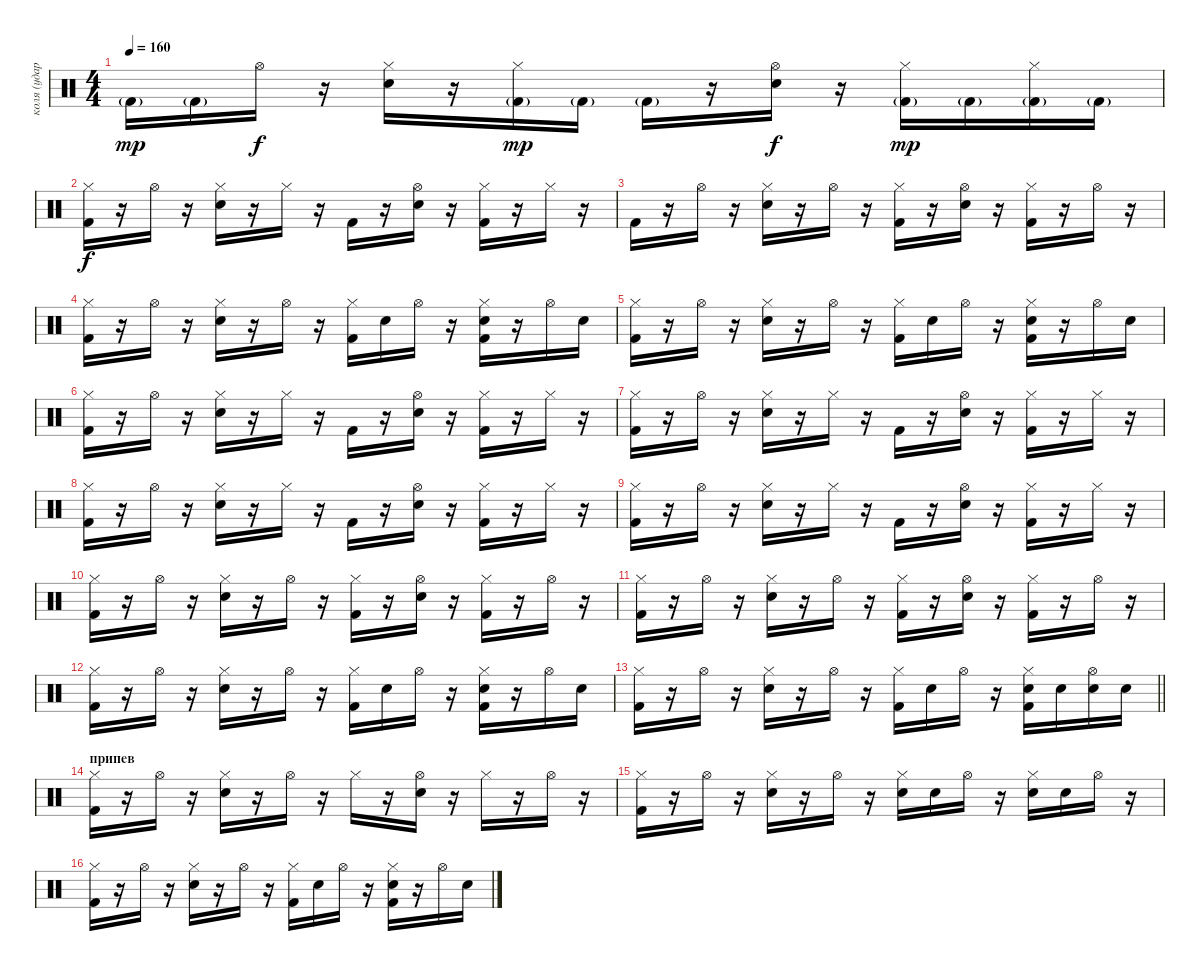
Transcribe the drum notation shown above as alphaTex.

\track ("коля (ударные)" "коля (удар") {instrument percussion}
\staff {score}
\articulation defaults
\ts (4 4)
\tempo 160
\clef neutral
\ks c "Kick (hit) 2"{g}.16{dy mp} "Kick (hit) 2"{g}.16 "Hi-Hat (open)".16{dy f}
r.16 ("Snare (hit) 2" "Hi-Hat (closed)").16 r.16 ("Kick (hit) 2"{g} "Hi-Hat (closed)").16{dy mp} "Kick (hit) 2"{g}.16 "Kick (hit) 2"{g}.16 r.16 ("Snare (hit) 2" "Hi-Hat (open)").16{dy f} r.16 ("Kick (hit) 2"{g} "Hi-Hat (closed)").16{dy mp} "Kick (hit) 2"{g}.16 ("Kick (hit) 2"{g} "Hi-Hat (closed)").16 "Kick (hit) 2"{g}.16 |
("Kick (hit) 2" "Hi-Hat (closed)").16{dy f} r.16 "Hi-Hat (open)".16 r.16 ("Snare (hit) 2" "Hi-Hat (closed)").16 r.16 "Hi-Hat (closed)".16 r.16 "Kick (hit) 2".16 r.16 ("Snare (hit) 2" "Hi-Hat (open)").16 r.16 ("Kick (hit) 2" "Hi-Hat (closed)").16 r.16 "Hi-Hat (closed)".16 r.16 |
"Kick (hit) 2".16 r.16 "Hi-Hat (open)".16 r.16 ("Snare (hit) 2" "Hi-Hat (closed)").16 r.16 "Hi-Hat (open)".16 r.16 ("Kick (hit) 2" "Hi-Hat (closed)").16 r.16 ("Snare (hit) 2" "Hi-Hat (open)").16 r.16 ("Kick (hit) 2" "Hi-Hat (closed)").16 r.16 "Hi-Hat (open)".16 r.16 |
("Kick (hit) 2" "Hi-Hat (closed)").16 r.16 "Hi-Hat (open)".16 r.16 ("Snare (hit) 2" "Hi-Hat (closed)").16 r.16 "Hi-Hat (open)".16 r.16 ("Kick (hit) 2" "Hi-Hat (closed)").16 "Snare (hit) 2".16 "Hi-Hat (open)".16 r.16 ("Snare (hit) 2" "Kick (hit) 2" "Hi-Hat (closed)").16 r.16 "Hi-Hat (open)".16 "Snare (hit) 2".16 |
("Kick (hit) 2" "Hi-Hat (closed)").16 r.16 "Hi-Hat (open)".16 r.16 ("Snare (hit) 2" "Hi-Hat (closed)").16 r.16 "Hi-Hat (open)".16 r.16 ("Kick (hit) 2" "Hi-Hat (closed)").16 "Snare (hit) 2".16 "Hi-Hat (open)".16 r.16 ("Snare (hit) 2" "Kick (hit) 2" "Hi-Hat (closed)").16 r.16 "Hi-Hat (open)".16 "Snare (hit) 2".16 |
("Kick (hit) 2" "Hi-Hat (closed)").16 r.16 "Hi-Hat (open)".16 r.16 ("Snare (hit) 2" "Hi-Hat (closed)").16 r.16 "Hi-Hat (closed)".16 r.16 "Kick (hit) 2".16 r.16 ("Snare (hit) 2" "Hi-Hat (open)").16 r.16 ("Kick (hit) 2" "Hi-Hat (closed)").16 r.16 "Hi-Hat (closed)".16 r.16 |
("Kick (hit) 2" "Hi-Hat (closed)").16 r.16 "Hi-Hat (open)".16 r.16 ("Snare (hit) 2" "Hi-Hat (closed)").16 r.16 "Hi-Hat (closed)".16 r.16 "Kick (hit) 2".16 r.16 ("Snare (hit) 2" "Hi-Hat (open)").16 r.16 ("Kick (hit) 2" "Hi-Hat (closed)").16 r.16 "Hi-Hat (closed)".16 r.16 |
("Kick (hit) 2" "Hi-Hat (closed)").16 r.16 "Hi-Hat (open)".16 r.16 ("Snare (hit) 2" "Hi-Hat (closed)").16 r.16 "Hi-Hat (closed)".16 r.16 "Kick (hit) 2".16 r.16 ("Snare (hit) 2" "Hi-Hat (open)").16 r.16 ("Kick (hit) 2" "Hi-Hat (closed)").16 r.16 "Hi-Hat (closed)".16 r.16 |
("Kick (hit) 2" "Hi-Hat (closed)").16 r.16 "Hi-Hat (open)".16 r.16 ("Snare (hit) 2" "Hi-Hat (closed)").16 r.16 "Hi-Hat (closed)".16 r.16 "Kick (hit) 2".16 r.16 ("Snare (hit) 2" "Hi-Hat (open)").16 r.16 ("Kick (hit) 2" "Hi-Hat (closed)").16 r.16 "Hi-Hat (closed)".16 r.16 |
("Kick (hit) 2" "Hi-Hat (closed)").16 r.16 "Hi-Hat (open)".16 r.16 ("Snare (hit) 2" "Hi-Hat (closed)").16 r.16 "Hi-Hat (open)".16 r.16 ("Kick (hit) 2" "Hi-Hat (closed)").16 r.16 ("Snare (hit) 2" "Hi-Hat (open)").16 r.16 ("Kick (hit) 2" "Hi-Hat (closed)").16 r.16 "Hi-Hat (open)".16 r.16 |
("Kick (hit) 2" "Hi-Hat (closed)").16 r.16 "Hi-Hat (open)".16 r.16 ("Snare (hit) 2" "Hi-Hat (closed)").16 r.16 "Hi-Hat (open)".16 r.16 ("Kick (hit) 2" "Hi-Hat (closed)").16 r.16 ("Snare (hit) 2" "Hi-Hat (open)").16 r.16 ("Kick (hit) 2" "Hi-Hat (closed)").16 r.16 "Hi-Hat (open)".16 r.16 |
("Kick (hit) 2" "Hi-Hat (closed)").16 r.16 "Hi-Hat (open)".16 r.16 ("Snare (hit) 2" "Hi-Hat (closed)").16 r.16 "Hi-Hat (open)".16 r.16 ("Kick (hit) 2" "Hi-Hat (closed)").16 "Snare (hit) 2".16 "Hi-Hat (open)".16 r.16 ("Snare (hit) 2" "Kick (hit) 2" "Hi-Hat (closed)").16 r.16 "Hi-Hat (open)".16 "Snare (hit) 2".16 |
\barLineRight lightlight
("Kick (hit) 2" "Hi-Hat (closed)").16 r.16 "Hi-Hat (open)".16 r.16 ("Snare (hit) 2" "Hi-Hat (closed)").16 r.16 "Hi-Hat (open)".16 r.16 ("Kick (hit) 2" "Hi-Hat (closed)").16 "Snare (hit) 2".16 "Hi-Hat (open)".16 r.16 ("Snare (hit) 2" "Kick (hit) 2" "Hi-Hat (closed)").16 "Snare (hit) 2".16 ("Snare (hit) 2" "Hi-Hat (open)").16 "Snare (hit) 2".16 |
\section ("" "припев")
("Kick (hit) 2" "Hi-Hat (closed)").16 r.16 "Hi-Hat (open)".16 r.16 ("Snare (hit) 2" "Hi-Hat (closed)").16 r.16 "Hi-Hat (open)".16 r.16 "Hi-Hat (closed)".16 r.16 ("Snare (hit) 2" "Hi-Hat (open)").16 r.16 "Hi-Hat (closed)".16 r.16 "Hi-Hat (open)".16 r.16 |
("Kick (hit) 2" "Hi-Hat (closed)").16 r.16 "Hi-Hat (open)".16 r.16 ("Snare (hit) 2" "Hi-Hat (closed)").16 r.16 "Hi-Hat (open)".16 r.16 ("Snare (hit) 2" "Hi-Hat (closed)").16 "Snare (hit) 2".16 "Hi-Hat (open)".16 r.16 ("Snare (hit) 2" "Hi-Hat (closed)").16 "Snare (hit) 2".16 "Hi-Hat (open)".16 r.16 |
("Kick (hit) 2" "Hi-Hat (closed)").16 r.16 "Hi-Hat (open)".16 r.16 ("Snare (hit) 2" "Hi-Hat (closed)").16 r.16 "Hi-Hat (open)".16 r.16 ("Kick (hit) 2" "Hi-Hat (closed)").16 "Snare (hit) 2".16 "Hi-Hat (open)".16 r.16 ("Snare (hit) 2" "Kick (hit) 2" "Hi-Hat (closed)").16 r.16 "Hi-Hat (open)".16 "Snare (hit) 2".16
